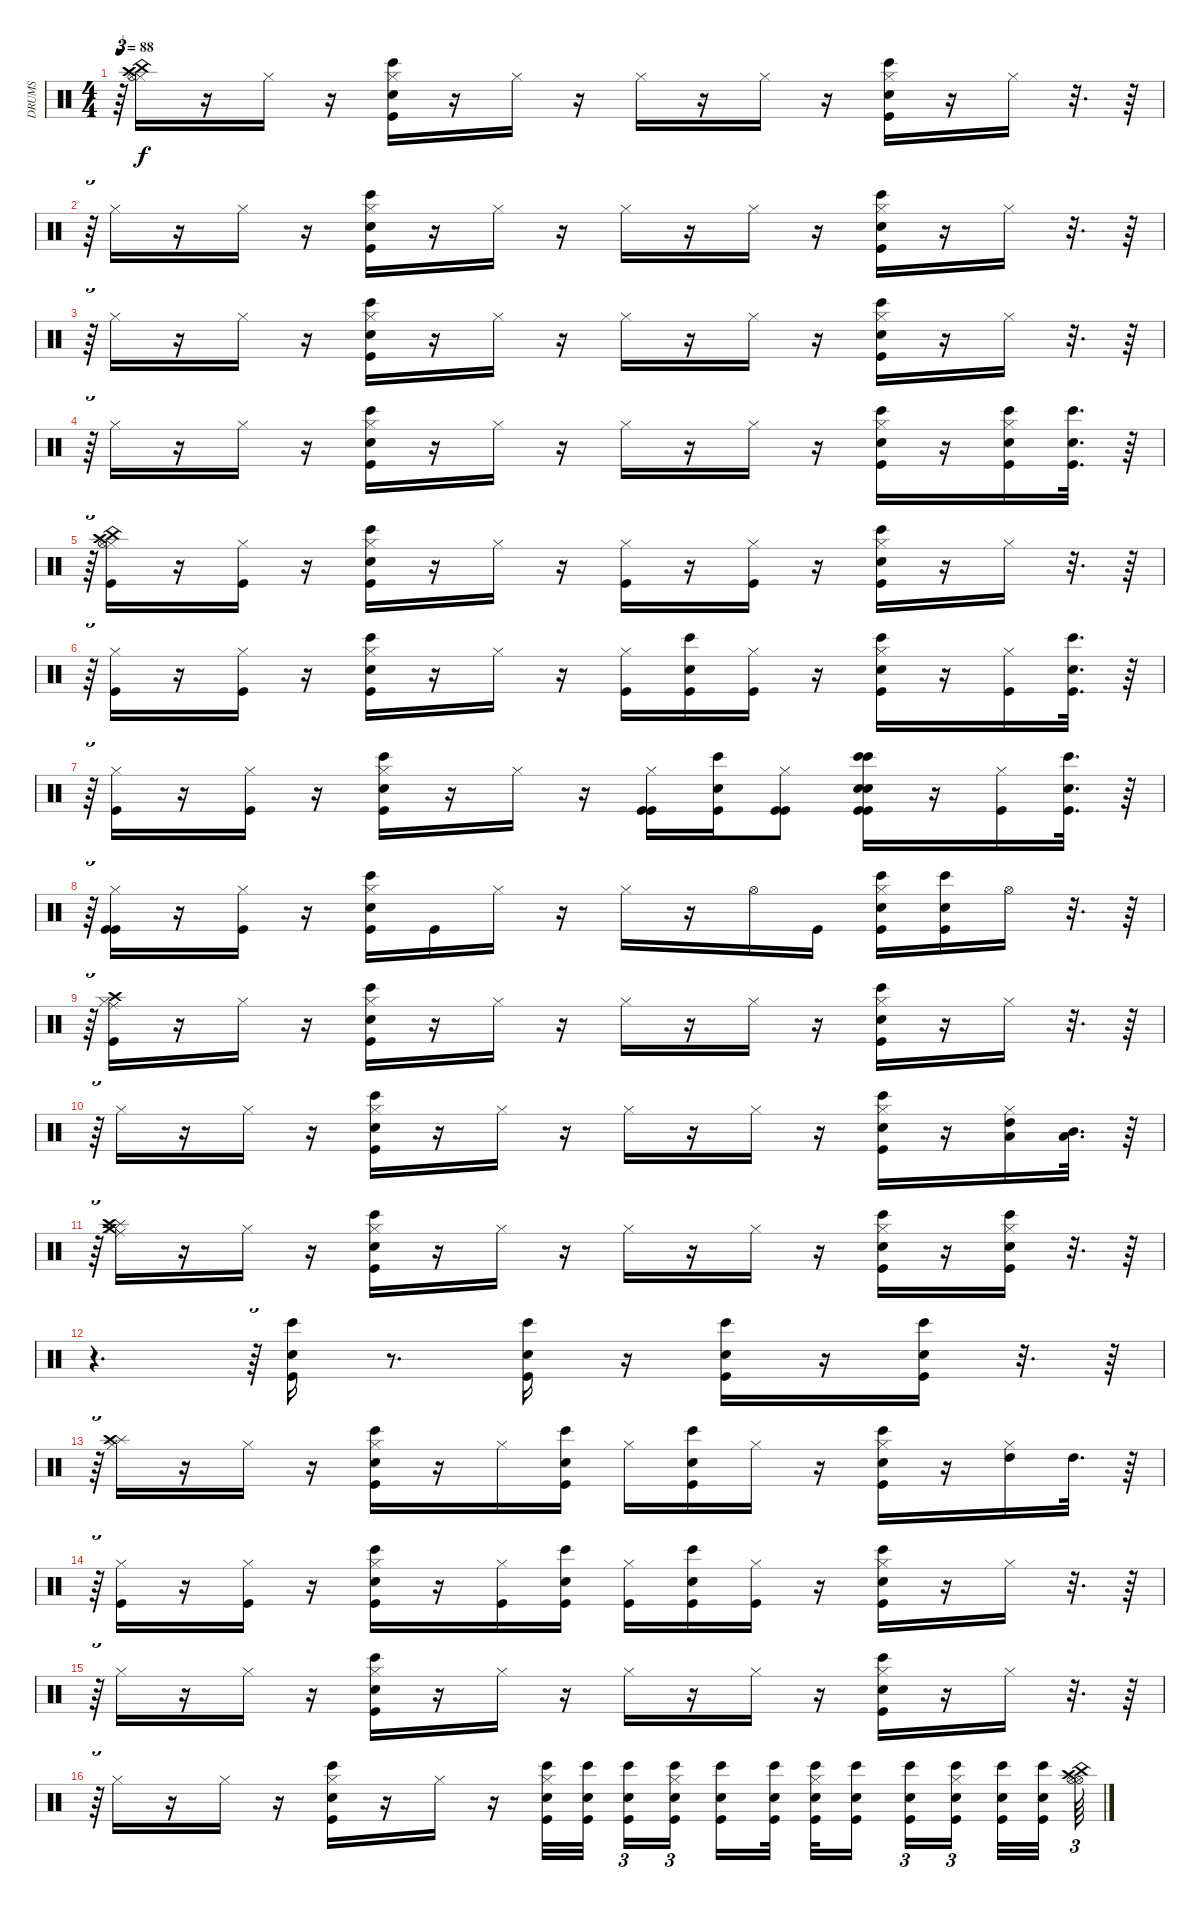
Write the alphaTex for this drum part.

\track ("DRUMS" "DRUMS") {instrument percussion}
\staff {score}
\articulation defaults
\ts (4 4)
\tempo 88
\clef neutral
\ks c
r.64{tu (3 2) dy f} ("Hi-Hat (closed)" "China (hit)" "Crash high (hit)" "Hi-Hat (open)").16 r.16 "Hi-Hat (closed)".16 r.16 ("Bongo High (hit)" "Kick (hit)" "Electric Snare (hit)" "Hi-Hat (closed)").16 r.16 "Hi-Hat (closed)".16 r.16 "Hi-Hat (closed)".16 r.16 "Hi-Hat (closed)".16 r.16 ("Bongo High (hit)" "Kick (hit)" "Electric Snare (hit)" "Hi-Hat (closed)").16 r.16 "Hi-Hat (closed)".16 r.32{d} r.64 |
r.64{tu (3 2)} "Hi-Hat (closed)".16 r.16 "Hi-Hat (closed)".16 r.16 ("Bongo High (hit)" "Kick (hit)" "Electric Snare (hit)" "Hi-Hat (closed)").16 r.16 "Hi-Hat (closed)".16 r.16 "Hi-Hat (closed)".16 r.16 "Hi-Hat (closed)".16 r.16 ("Bongo High (hit)" "Kick (hit)" "Electric Snare (hit)" "Hi-Hat (closed)").16 r.16 "Hi-Hat (closed)".16 r.32{d} r.64 |
r.64{tu (3 2)} "Hi-Hat (closed)".16 r.16 "Hi-Hat (closed)".16 r.16 ("Bongo High (hit)" "Kick (hit)" "Electric Snare (hit)" "Hi-Hat (closed)").16 r.16 "Hi-Hat (closed)".16 r.16 "Hi-Hat (closed)".16 r.16 "Hi-Hat (closed)".16 r.16 ("Bongo High (hit)" "Kick (hit)" "Electric Snare (hit)" "Hi-Hat (closed)").16 r.16 "Hi-Hat (closed)".16 r.32{d} r.64 |
r.64{tu (3 2)} "Hi-Hat (closed)".16 r.16 "Hi-Hat (closed)".16 r.16 ("Bongo High (hit)" "Kick (hit)" "Electric Snare (hit)" "Hi-Hat (closed)").16 r.16 "Hi-Hat (closed)".16 r.16 "Hi-Hat (closed)".16 r.16 "Hi-Hat (closed)".16 r.16 ("Bongo High (hit)" "Kick (hit)" "Electric Snare (hit)" "Hi-Hat (closed)").16 r.16 ("Bongo High (hit)" "Kick (hit)" "Electric Snare (hit)" "Hi-Hat (closed)").16 ("Bongo High (hit)" "Kick (hit)" "Electric Snare (hit)").32{d} r.64 |
r.64{tu (3 2)} ("Kick (hit)" "Hi-Hat (closed)" "Hi-Hat (open)" "China (hit)" "Crash high (hit)").16 r.16 ("Kick (hit)" "Hi-Hat (closed)").16 r.16 ("Bongo High (hit)" "Kick (hit)" "Electric Snare (hit)" "Hi-Hat (closed)").16 r.16 "Hi-Hat (closed)".16 r.16 ("Kick (hit)" "Hi-Hat (closed)").16 r.16 ("Kick (hit)" "Hi-Hat (closed)").16 r.16 ("Bongo High (hit)" "Kick (hit)" "Electric Snare (hit)" "Hi-Hat (closed)").16 r.16 "Hi-Hat (closed)".16 r.32{d} r.64 |
r.64{tu (3 2)} ("Kick (hit)" "Hi-Hat (closed)").16 r.16 ("Kick (hit)" "Hi-Hat (closed)").16 r.16 ("Bongo High (hit)" "Kick (hit)" "Electric Snare (hit)" "Hi-Hat (closed)").16 r.16 "Hi-Hat (closed)".16 r.16 ("Kick (hit)" "Hi-Hat (closed)").16 ("Bongo High (hit)" "Kick (hit)" "Electric Snare (hit)").16 ("Kick (hit)" "Hi-Hat (closed)").16 r.16 ("Bongo High (hit)" "Kick (hit)" "Electric Snare (hit)" "Hi-Hat (closed)").16 r.16 ("Kick (hit)" "Hi-Hat (closed)").16 ("Bongo High (hit)" "Kick (hit)" "Electric Snare (hit)").32{d} r.64 |
r.64{tu (3 2)} ("Kick (hit)" "Hi-Hat (closed)").16 r.16 ("Kick (hit)" "Hi-Hat (closed)").16 r.16 ("Bongo High (hit)" "Kick (hit)" "Electric Snare (hit)" "Hi-Hat (closed)").16 r.16 "Hi-Hat (closed)".16 r.16 ("Kick (hit)" "Kick (hit)" "Hi-Hat (closed)").16 ("Bongo High (hit)" "Kick (hit)" "Electric Snare (hit)").16 ("Kick (hit)" "Kick (hit)" "Hi-Hat (closed)").8 ("Bongo High (hit)" "Kick (hit)" "Electric Snare (hit)" "Bongo High (hit)" "Kick (hit)" "Electric Snare (hit)").16 r.16 ("Kick (hit)" "Hi-Hat (closed)").16 ("Bongo High (hit)" "Kick (hit)" "Electric Snare (hit)").32{d} r.64 |
r.64{tu (3 2)} ("Kick (hit)" "Kick (hit)" "Hi-Hat (closed)").16 r.16 ("Kick (hit)" "Hi-Hat (closed)").16 r.16 ("Bongo High (hit)" "Kick (hit)" "Electric Snare (hit)" "Hi-Hat (closed)").16 "Kick (hit)".16 "Hi-Hat (closed)".16 r.16 "Hi-Hat (closed)".16 r.16 "Hi-Hat (open)".16 "Kick (hit)".16 ("Bongo High (hit)" "Kick (hit)" "Electric Snare (hit)" "Hi-Hat (closed)").16 ("Bongo High (hit)" "Kick (hit)" "Electric Snare (hit)").16 "Hi-Hat (open)".16 r.32{d} r.64 |
r.64{tu (3 2)} ("Hi-Hat (closed)" "Kick (hit)" "Crash high (hit)" "Ride (middle)").16 r.16 "Hi-Hat (closed)".16 r.16 ("Bongo High (hit)" "Kick (hit)" "Electric Snare (hit)" "Hi-Hat (closed)").16 r.16 "Hi-Hat (closed)".16 r.16 "Hi-Hat (closed)".16 r.16 "Hi-Hat (closed)".16 r.16 ("Bongo High (hit)" "Kick (hit)" "Electric Snare (hit)" "Hi-Hat (closed)").16 r.16 "Hi-Hat (closed)".16 r.32{d} r.64 |
r.64{tu (3 2)} "Hi-Hat (closed)".16 r.16 "Hi-Hat (closed)".16 r.16 ("Bongo High (hit)" "Kick (hit)" "Electric Snare (hit)" "Hi-Hat (closed)").16 r.16 "Hi-Hat (closed)".16 r.16 "Hi-Hat (closed)".16 r.16 "Hi-Hat (closed)".16 r.16 ("Bongo High (hit)" "Kick (hit)" "Electric Snare (hit)" "Hi-Hat (closed)").16 r.16 ("Low Floor Tom (hit)" "High Tom (hit)" "Hi-Hat (closed)").16 ("Low Floor Tom (hit)" "Mid Tom (hit)").32{d} r.64 |
r.64{tu (3 2)} ("Splash (hit)" "Crash medium (hit)" "Crash high (hit)" "Ride (middle)" "Hi-Hat (closed)").16 r.16 "Hi-Hat (closed)".16 r.16 ("Bongo High (hit)" "Kick (hit)" "Electric Snare (hit)" "Hi-Hat (closed)").16 r.16 "Hi-Hat (closed)".16 r.16 "Hi-Hat (closed)".16 r.16 "Hi-Hat (closed)".16 r.16 ("Bongo High (hit)" "Kick (hit)" "Electric Snare (hit)" "Hi-Hat (closed)").16 r.16 ("Bongo High (hit)" "Kick (hit)" "Electric Snare (hit)" "Hi-Hat (closed)").16 r.32{d} r.64 |
r.4{d} r.64{tu (3 2)} ("Bongo High (hit)" "Kick (hit)" "Electric Snare (hit)").16 r.8{d} ("Bongo High (hit)" "Kick (hit)" "Electric Snare (hit)").16 r.16 ("Bongo High (hit)" "Kick (hit)" "Electric Snare (hit)").16 r.16 ("Bongo High (hit)" "Kick (hit)" "Electric Snare (hit)").16 r.32{d} r.64 |
r.64{tu (3 2)} ("Splash (hit)" "Crash high (hit)" "Hi-Hat (closed)").16 r.16 "Hi-Hat (closed)".16 r.16 ("Bongo High (hit)" "Kick (hit)" "Electric Snare (hit)" "Hi-Hat (closed)").16 r.16 "Hi-Hat (closed)".16 ("Bongo High (hit)" "Kick (hit)" "Electric Snare (hit)").16 "Hi-Hat (closed)".16 ("Bongo High (hit)" "Kick (hit)" "Electric Snare (hit)").16 "Hi-Hat (closed)".16 r.16 ("Bongo High (hit)" "Kick (hit)" "Electric Snare (hit)" "Hi-Hat (closed)").16 r.16 ("High Tom (hit)" "Hi-Hat (closed)").16 "High Tom (hit)".32{d} r.64 |
r.64{tu (3 2)} ("Kick (hit)" "Hi-Hat (closed)").16 r.16 ("Kick (hit)" "Hi-Hat (closed)").16 r.16 ("Bongo High (hit)" "Kick (hit)" "Electric Snare (hit)" "Hi-Hat (closed)").16 r.16 ("Kick (hit)" "Hi-Hat (closed)").16 ("Bongo High (hit)" "Kick (hit)" "Electric Snare (hit)").16 ("Kick (hit)" "Hi-Hat (closed)").16 ("Bongo High (hit)" "Kick (hit)" "Electric Snare (hit)").16 ("Kick (hit)" "Hi-Hat (closed)").16 r.16 ("Bongo High (hit)" "Kick (hit)" "Electric Snare (hit)" "Hi-Hat (closed)").16 r.16 "Hi-Hat (closed)".16 r.32{d} r.64 |
r.64{tu (3 2)} "Hi-Hat (closed)".16 r.16 "Hi-Hat (closed)".16 r.16 ("Bongo High (hit)" "Kick (hit)" "Electric Snare (hit)" "Hi-Hat (closed)").16 r.16 "Hi-Hat (closed)".16 r.16 "Hi-Hat (closed)".16 r.16 "Hi-Hat (closed)".16 r.16 ("Bongo High (hit)" "Kick (hit)" "Electric Snare (hit)" "Hi-Hat (closed)").16 r.16 "Hi-Hat (closed)".16 r.32{d} r.64 |
r.64{tu (3 2)} "Hi-Hat (closed)".16 r.16 "Hi-Hat (closed)".16 r.16 ("Bongo High (hit)" "Kick (hit)" "Electric Snare (hit)" "Hi-Hat (closed)").16 r.16 "Hi-Hat (closed)".16 r.16 ("Bongo High (hit)" "Kick (hit)" "Electric Snare (hit)" "Hi-Hat (closed)").32 ("Bongo High (hit)" "Kick (hit)" "Electric Snare (hit)").32 ("Bongo High (hit)" "Kick (hit)" "Electric Snare (hit)").16{tu (3 2)} ("Bongo High (hit)" "Kick (hit)" "Electric Snare (hit)" "Hi-Hat (closed)").16{tu (3 2)} ("Bongo High (hit)" "Kick (hit)" "Electric Snare (hit)").16 ("Bongo High (hit)" "Kick (hit)" "Electric Snare (hit)").32 ("Bongo High (hit)" "Kick (hit)" "Electric Snare (hit)" "Hi-Hat (closed)").32 ("Bongo High (hit)" "Kick (hit)" "Electric Snare (hit)").16 ("Bongo High (hit)" "Kick (hit)" "Electric Snare (hit)").16{tu (3 2)} ("Bongo High (hit)" "Kick (hit)" "Electric Snare (hit)" "Hi-Hat (closed)").16{tu (3 2)} ("Bongo High (hit)" "Kick (hit)" "Electric Snare (hit)").32 ("Bongo High (hit)" "Kick (hit)" "Electric Snare (hit)").32 ("Hi-Hat (open)" "China (hit)" "Crash high (hit)" "Hi-Hat (open)").64{tu (3 2)}
